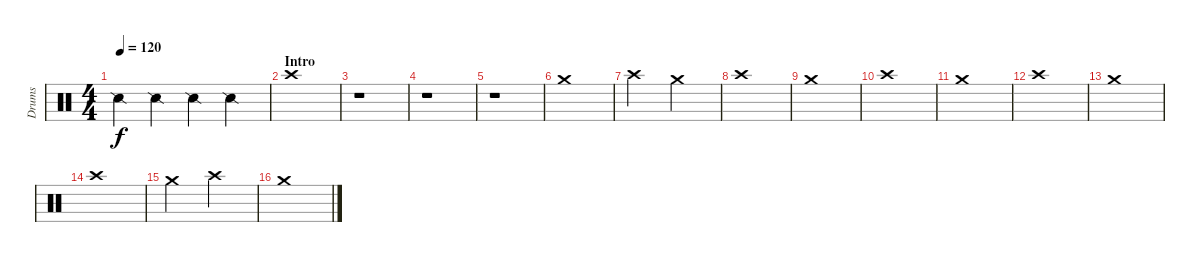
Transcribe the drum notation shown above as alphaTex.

\track ("Drums" "Drums") {instrument percussion}
\staff {score}
\articulation defaults
\ts (4 4)
\tempo 120
\clef neutral
\ks c "Snare (side stick) 2".4{dy f} "Snare (side stick) 2".4 "Snare (side stick) 2".4 "Snare (side stick) 2".4
|
\section ("" "Intro")
"Crash high (hit)".1 |
r.1 |
r.1 |
r.1 |
"Crash medium (hit)".1 |
"Crash high (hit)".2 "Crash medium (hit)".2 |
"Crash high (hit)".1 |
"Crash medium (hit)".1 |
"Crash high (hit)".1 |
"Crash medium (hit)".1 |
"Crash high (hit)".1 |
"Crash medium (hit)".1 |
"Crash high (hit)".1 |
"Crash medium (hit)".2 "Crash high (hit)".2 |
"Crash medium (hit)".1
